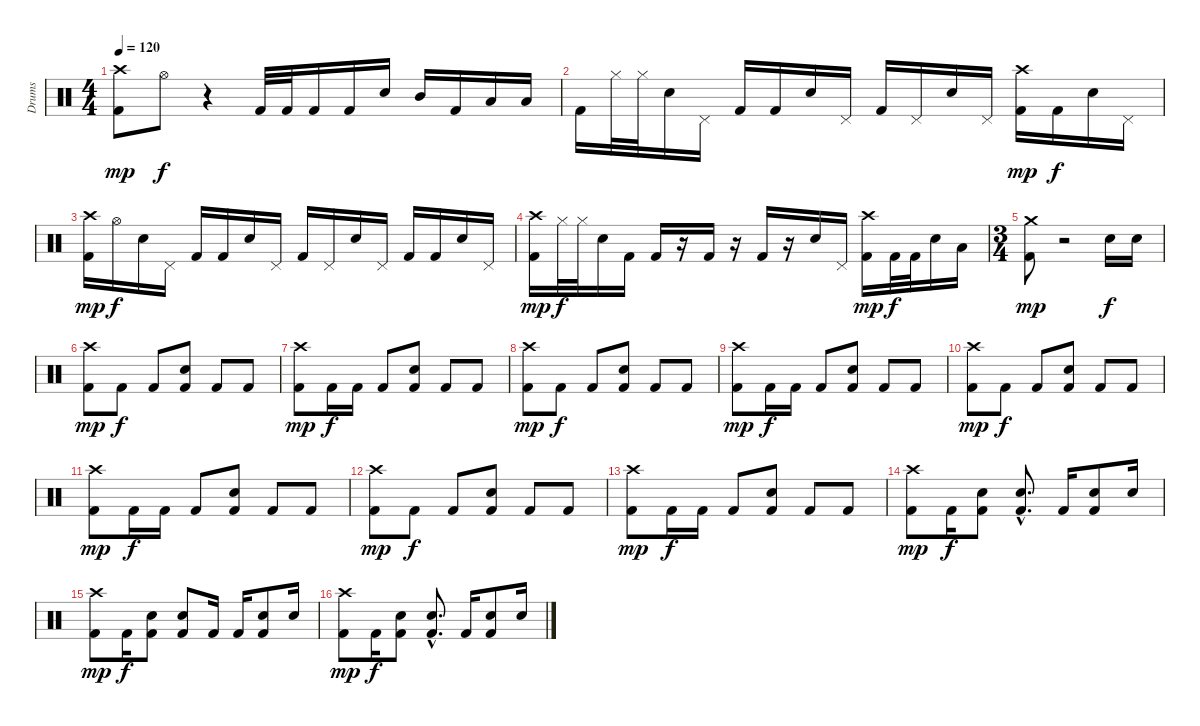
\track ("Drums" "Drums") {instrument percussion}
\staff {score}
\articulation defaults
\ts (4 4)
\tempo 120
\clef neutral
\ks c
("Kick (hit) 2" "Crash high (hit)").8{dy mp} "Hi-Hat (open)".8{dy f} r.4 "Kick (hit) 2".32 "Kick (hit) 2".32 "Kick (hit) 2".16 "Kick (hit) 2".16 "Electric Snare (hit)".16 "Mid Tom (hit)".16 "Kick (hit) 2".16 "Low Tom (hit)".16 "Low Tom (hit)".16 |
"Kick (hit) 2".16 "Hi-Hat (closed)".32 "Hi-Hat (closed)".32 "Electric Snare (hit)".16 "Pedal Hi-Hat (hit)".16 "Kick (hit) 2".16 "Kick (hit) 2".16 "Electric Snare (hit)".16 "Pedal Hi-Hat (hit)".16 "Kick (hit) 2".16 "Pedal Hi-Hat (hit)".16 "Electric Snare (hit)".16 "Pedal Hi-Hat (hit)".16 ("Kick (hit) 2" "Crash high (hit)").16{dy mp} "Kick (hit) 2".16{dy f} "Electric Snare (hit)".16 "Pedal Hi-Hat (hit)".16 |
("Kick (hit) 2" "Crash high (hit)").16{dy mp} "Hi-Hat (open)".16{dy f} "Electric Snare (hit)".16 "Pedal Hi-Hat (hit)".16 "Kick (hit) 2".16 "Kick (hit) 2".16 "Electric Snare (hit)".16 "Pedal Hi-Hat (hit)".16 "Kick (hit) 2".16 "Pedal Hi-Hat (hit)".16 "Electric Snare (hit)".16 "Pedal Hi-Hat (hit)".16 "Kick (hit) 2".16 "Kick (hit) 2".16 "Electric Snare (hit)".16 "Pedal Hi-Hat (hit)".16 |
("Kick (hit) 2" "Crash high (hit)").16{dy mp} "Hi-Hat (closed)".32{dy f} "Hi-Hat (closed)".32 "Electric Snare (hit)".16 "Kick (hit) 2".16 "Kick (hit) 2".16 r.16 "Kick (hit) 2".16 r.16 "Kick (hit) 2".16 r.16 "Electric Snare (hit)".16 "Pedal Hi-Hat (hit)".16 ("Kick (hit) 2" "Crash high (hit)").16{dy mp} "Kick (hit) 2".32{dy f} "Kick (hit) 2".32 "Electric Snare (hit)".16 "Low Tom (hit)".16 |
\ts (3 4)
("Kick (hit) 2" "Crash medium (hit)").8{dy mp} r.2 "Electric Snare (hit)".16{dy f} "Electric Snare (hit)".16 |
("Kick (hit) 2" "Crash high (hit)").8{dy mp} "Kick (hit) 2".8{dy f} "Kick (hit) 2".8 ("Kick (hit) 2" "Electric Snare (hit)").8 "Kick (hit) 2".8 "Kick (hit) 2".8 |
("Kick (hit) 2" "Crash high (hit)").8{dy mp} "Kick (hit) 2".16{dy f} "Kick (hit) 2".16 "Kick (hit) 2".8 ("Kick (hit) 2" "Electric Snare (hit)").8 "Kick (hit) 2".8 "Kick (hit) 2".8 |
("Kick (hit) 2" "Crash high (hit)").8{dy mp} "Kick (hit) 2".8{dy f} "Kick (hit) 2".8 ("Kick (hit) 2" "Electric Snare (hit)").8 "Kick (hit) 2".8 "Kick (hit) 2".8 |
("Kick (hit) 2" "Crash high (hit)").8{dy mp} "Kick (hit) 2".16{dy f} "Kick (hit) 2".16 "Kick (hit) 2".8 ("Kick (hit) 2" "Electric Snare (hit)").8 "Kick (hit) 2".8 "Kick (hit) 2".8 |
("Kick (hit) 2" "Crash high (hit)").8{dy mp} "Kick (hit) 2".8{dy f} "Kick (hit) 2".8 ("Kick (hit) 2" "Electric Snare (hit)").8 "Kick (hit) 2".8 "Kick (hit) 2".8 |
("Kick (hit) 2" "Crash high (hit)").8{dy mp} "Kick (hit) 2".16{dy f} "Kick (hit) 2".16 "Kick (hit) 2".8 ("Kick (hit) 2" "Electric Snare (hit)").8 "Kick (hit) 2".8 "Kick (hit) 2".8 |
("Kick (hit) 2" "Crash high (hit)").8{dy mp} "Kick (hit) 2".8{dy f} "Kick (hit) 2".8 ("Kick (hit) 2" "Electric Snare (hit)").8 "Kick (hit) 2".8 "Kick (hit) 2".8 |
("Kick (hit) 2" "Crash high (hit)").8{dy mp} "Kick (hit) 2".16{dy f} "Kick (hit) 2".16 "Kick (hit) 2".8 ("Kick (hit) 2" "Electric Snare (hit)").8 "Kick (hit) 2".8 "Kick (hit) 2".8 |
("Kick (hit) 2" "Crash high (hit)").8{dy mp} "Kick (hit) 2".16{dy f} ("Kick (hit) 2" "Electric Snare (hit)").8 ("Kick (hit) 2"{hac} "Electric Snare (hit)"{hac}).8{d} "Kick (hit) 2".16 ("Kick (hit) 2" "Electric Snare (hit)").8 "Electric Snare (hit)".16 |
("Kick (hit) 2" "Crash high (hit)").8{dy mp} "Kick (hit) 2".16{dy f} ("Kick (hit) 2" "Electric Snare (hit)").8 ("Kick (hit) 2" "Electric Snare (hit)").8 "Kick (hit) 2".16 "Kick (hit) 2".16 ("Kick (hit) 2" "Electric Snare (hit)").8 "Electric Snare (hit)".16 |
("Kick (hit) 2" "Crash high (hit)").8{dy mp} "Kick (hit) 2".16{dy f} ("Kick (hit) 2" "Electric Snare (hit)").8 ("Kick (hit) 2"{hac} "Electric Snare (hit)"{hac}).8{d} "Kick (hit) 2".16 ("Kick (hit) 2" "Electric Snare (hit)").8 "Electric Snare (hit)".16
